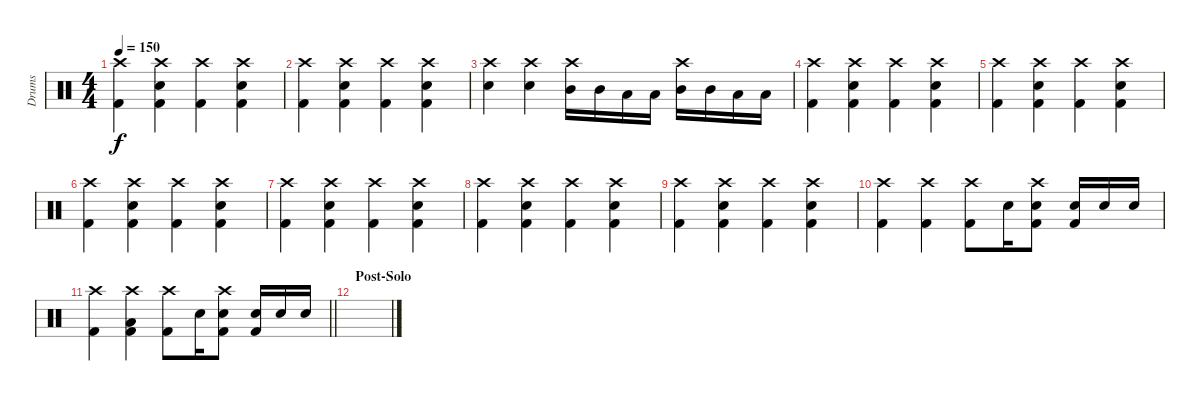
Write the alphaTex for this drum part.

\track ("Drums" "Drums") {instrument percussion}
\staff {score}
\articulation defaults
\ts (4 4)
\tempo 150
\clef neutral
\ks c
("Crash high (hit)" "Kick (hit) 2").4{dy f} ("Crash high (hit)" "Kick (hit) 2" "Electric Snare (hit)").4 ("Crash high (hit)" "Kick (hit) 2").4 ("Crash high (hit)" "Kick (hit) 2" "Electric Snare (hit)").4 |
("Crash high (hit)" "Kick (hit) 2").4 ("Crash high (hit)" "Kick (hit) 2" "Electric Snare (hit)").4 ("Crash high (hit)" "Kick (hit) 2").4 ("Crash high (hit)" "Kick (hit) 2" "Electric Snare (hit)").4 |
("Crash high (hit)" "Electric Snare (hit)").4 ("Crash high (hit)" "Electric Snare (hit)").4 ("Crash high (hit)" "Mid Tom (hit)").16 "Mid Tom (hit)".16 "Low Tom (hit)".16 "Low Tom (hit)".16 ("Crash high (hit)" "Mid Tom (hit)").16 "Mid Tom (hit)".16 "Low Tom (hit)".16 "Low Tom (hit)".16 |
("Crash high (hit)" "Kick (hit) 2").4 ("Crash high (hit)" "Kick (hit) 2" "Electric Snare (hit)").4 ("Crash high (hit)" "Kick (hit) 2").4 ("Crash high (hit)" "Kick (hit) 2" "Electric Snare (hit)").4 |
("Crash high (hit)" "Kick (hit) 2").4 ("Crash high (hit)" "Kick (hit) 2" "Electric Snare (hit)").4 ("Crash high (hit)" "Kick (hit) 2").4 ("Crash high (hit)" "Kick (hit) 2" "Electric Snare (hit)").4 |
("Crash high (hit)" "Kick (hit) 2").4 ("Crash high (hit)" "Kick (hit) 2" "Electric Snare (hit)").4 ("Crash high (hit)" "Kick (hit) 2").4 ("Crash high (hit)" "Kick (hit) 2" "Electric Snare (hit)").4 |
("Crash high (hit)" "Kick (hit) 2").4 ("Crash high (hit)" "Kick (hit) 2" "Electric Snare (hit)").4 ("Crash high (hit)" "Kick (hit) 2").4 ("Crash high (hit)" "Kick (hit) 2" "Electric Snare (hit)").4 |
("Crash high (hit)" "Kick (hit) 2").4 ("Crash high (hit)" "Kick (hit) 2" "Electric Snare (hit)").4 ("Crash high (hit)" "Kick (hit) 2").4 ("Crash high (hit)" "Kick (hit) 2" "Electric Snare (hit)").4 |
("Crash high (hit)" "Kick (hit) 2").4 ("Crash high (hit)" "Kick (hit) 2" "Electric Snare (hit)").4 ("Crash high (hit)" "Kick (hit) 2").4 ("Crash high (hit)" "Kick (hit) 2" "Electric Snare (hit)").4 |
("Crash high (hit)" "Kick (hit) 2").4 ("Crash high (hit)" "Kick (hit) 2").4 ("Crash high (hit)" "Kick (hit) 2").8 "Electric Snare (hit)".16 ("Crash high (hit)" "Kick (hit) 2" "Electric Snare (hit)").8 ("Kick (hit) 2" "Electric Snare (hit)").16 "Electric Snare (hit)".16 "Electric Snare (hit)".16 |
\barLineRight lightlight
("Crash high (hit)" "Kick (hit) 2").4 ("Crash high (hit)" "Kick (hit) 2" "Low Tom (hit)").4 ("Crash high (hit)" "Kick (hit) 2").8 "Electric Snare (hit)".16 ("Crash high (hit)" "Kick (hit) 2" "Electric Snare (hit)").8 ("Kick (hit) 2" "Electric Snare (hit)").16 "Electric Snare (hit)".16 "Electric Snare (hit)".16 |
\section ("" "Post-Solo")
